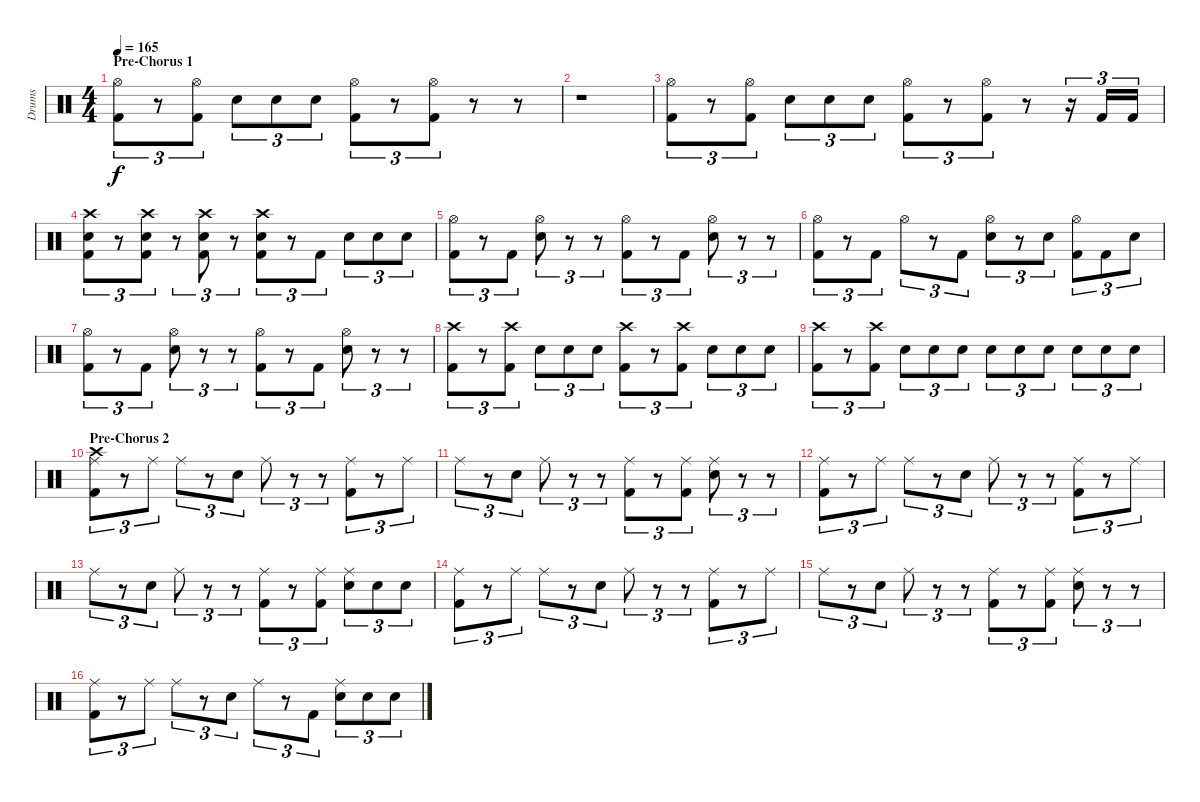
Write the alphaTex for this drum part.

\track ("Drums" "Drums") {instrument percussion}
\staff {score}
\articulation defaults
\ts (4 4)
\section ("" "Pre-Chorus 1")
\tempo 165
\clef neutral
\ks c
("Hi-Hat (open)" "Kick (hit) 2").8{tu (3 2) dy f} r.8{tu (3 2)} ("Hi-Hat (open)" "Kick (hit) 2").8{tu (3 2)} "Snare (hit) 2".8{tu (3 2)} "Snare (hit) 2".8{tu (3 2)} "Snare (hit) 2".8{tu (3 2)} ("Hi-Hat (open)" "Kick (hit) 2").8{tu (3 2)} r.8{tu (3 2)} ("Hi-Hat (open)" "Kick (hit) 2").8{tu (3 2)} r.8 r.8 |
r.1 |
("Hi-Hat (open)" "Kick (hit) 2").8{tu (3 2)} r.8{tu (3 2)} ("Hi-Hat (open)" "Kick (hit) 2").8{tu (3 2)} "Snare (hit) 2".8{tu (3 2)} "Snare (hit) 2".8{tu (3 2)} "Snare (hit) 2".8{tu (3 2)} ("Hi-Hat (open)" "Kick (hit) 2").8{tu (3 2)} r.8{tu (3 2)} ("Hi-Hat (open)" "Kick (hit) 2").8{tu (3 2)} r.8 r.16{tu (3 2)} "Kick (hit) 2".16{tu (3 2)} "Kick (hit) 2".16{tu (3 2)} |
("Crash high (hit)" "Snare (hit) 2" "Kick (hit) 2").8{tu (3 2)} r.8{tu (3 2)} ("Crash high (hit)" "Snare (hit) 2" "Kick (hit) 2").8{tu (3 2)} r.8{tu (3 2)} ("Crash high (hit)" "Snare (hit) 2" "Kick (hit) 2").8{tu (3 2)} r.8{tu (3 2)} ("Crash high (hit)" "Snare (hit) 2" "Kick (hit) 2").8{tu (3 2)} r.8{tu (3 2)} "Kick (hit) 2".8{tu (3 2)} "Snare (hit) 2".8{tu (3 2)} "Snare (hit) 2".8{tu (3 2)} "Snare (hit) 2".8{tu (3 2)} |
("Hi-Hat (open)" "Kick (hit) 2").8{tu (3 2)} r.8{tu (3 2)} "Kick (hit) 2".8{tu (3 2)} ("Hi-Hat (open)" "Snare (hit) 2").8{tu (3 2)} r.8{tu (3 2)} r.8{tu (3 2)} ("Hi-Hat (open)" "Kick (hit) 2").8{tu (3 2)} r.8{tu (3 2)} "Kick (hit) 2".8{tu (3 2)} ("Hi-Hat (open)" "Snare (hit) 2").8{tu (3 2)} r.8{tu (3 2)} r.8{tu (3 2)} |
("Hi-Hat (open)" "Kick (hit) 2").8{tu (3 2)} r.8{tu (3 2)} "Kick (hit) 2".8{tu (3 2)} "Hi-Hat (open)".8{tu (3 2)} r.8{tu (3 2)} "Kick (hit) 2".8{tu (3 2)} ("Hi-Hat (open)" "Snare (hit) 2").8{tu (3 2)} r.8{tu (3 2)} "Snare (hit) 2".8{tu (3 2)} ("Hi-Hat (open)" "Kick (hit) 2").8{tu (3 2)} "Kick (hit) 2".8{tu (3 2)} "Snare (hit) 2".8{tu (3 2)} |
("Hi-Hat (open)" "Kick (hit) 2").8{tu (3 2)} r.8{tu (3 2)} "Kick (hit) 2".8{tu (3 2)} ("Hi-Hat (open)" "Snare (hit) 2").8{tu (3 2)} r.8{tu (3 2)} r.8{tu (3 2)} ("Hi-Hat (open)" "Kick (hit) 2").8{tu (3 2)} r.8{tu (3 2)} "Kick (hit) 2".8{tu (3 2)} ("Hi-Hat (open)" "Snare (hit) 2").8{tu (3 2)} r.8{tu (3 2)} r.8{tu (3 2)} |
("Crash high (hit)" "Kick (hit) 2").8{tu (3 2)} r.8{tu (3 2)} ("Crash high (hit)" "Kick (hit) 2").8{tu (3 2)} "Snare (hit) 2".8{tu (3 2)} "Snare (hit) 2".8{tu (3 2)} "Snare (hit) 2".8{tu (3 2)} ("Crash high (hit)" "Kick (hit) 2").8{tu (3 2)} r.8{tu (3 2)} ("Crash high (hit)" "Kick (hit) 2").8{tu (3 2)} "Snare (hit) 2".8{tu (3 2)} "Snare (hit) 2".8{tu (3 2)} "Snare (hit) 2".8{tu (3 2)} |
("Crash high (hit)" "Kick (hit) 2").8{tu (3 2)} r.8{tu (3 2)} ("Crash high (hit)" "Kick (hit) 2").8{tu (3 2)} "Snare (hit) 2".8{tu (3 2)} "Snare (hit) 2".8{tu (3 2)} "Snare (hit) 2".8{tu (3 2)} "Snare (hit) 2".8{tu (3 2)} "Snare (hit) 2".8{tu (3 2)} "Snare (hit) 2".8{tu (3 2)} "Snare (hit) 2".8{tu (3 2)} "Snare (hit) 2".8{tu (3 2)} "Snare (hit) 2".8{tu (3 2)} |
\section ("" "Pre-Chorus 2")
("Ride (middle)" "Crash high (hit)" "Kick (hit) 2").8{tu (3 2)} r.8{tu (3 2)} "Ride (middle)".8{tu (3 2)} "Ride (middle)".8{tu (3 2)} r.8{tu (3 2)} "Snare (hit) 2".8{tu (3 2)} "Ride (middle)".8{tu (3 2)} r.8{tu (3 2)} r.8{tu (3 2)} ("Ride (middle)" "Kick (hit) 2").8{tu (3 2)} r.8{tu (3 2)} "Ride (middle)".8{tu (3 2)} |
"Ride (middle)".8{tu (3 2)} r.8{tu (3 2)} "Snare (hit) 2".8{tu (3 2)} "Ride (middle)".8{tu (3 2)} r.8{tu (3 2)} r.8{tu (3 2)} ("Ride (middle)" "Kick (hit) 2").8{tu (3 2)} r.8{tu (3 2)} ("Ride (middle)" "Kick (hit) 2").8{tu (3 2)} ("Ride (middle)" "Snare (hit) 2").8{tu (3 2)} r.8{tu (3 2)} r.8{tu (3 2)} |
("Ride (middle)" "Kick (hit) 2").8{tu (3 2)} r.8{tu (3 2)} "Ride (middle)".8{tu (3 2)} "Ride (middle)".8{tu (3 2)} r.8{tu (3 2)} "Snare (hit) 2".8{tu (3 2)} "Ride (middle)".8{tu (3 2)} r.8{tu (3 2)} r.8{tu (3 2)} ("Ride (middle)" "Kick (hit) 2").8{tu (3 2)} r.8{tu (3 2)} "Ride (middle)".8{tu (3 2)} |
"Ride (middle)".8{tu (3 2)} r.8{tu (3 2)} "Snare (hit) 2".8{tu (3 2)} "Ride (middle)".8{tu (3 2)} r.8{tu (3 2)} r.8{tu (3 2)} ("Ride (middle)" "Kick (hit) 2").8{tu (3 2)} r.8{tu (3 2)} ("Ride (middle)" "Kick (hit) 2").8{tu (3 2)} ("Ride (middle)" "Snare (hit) 2").8{tu (3 2)} "Snare (hit) 2".8{tu (3 2)} "Snare (hit) 2".8{tu (3 2)} |
("Ride (middle)" "Kick (hit) 2").8{tu (3 2)} r.8{tu (3 2)} "Ride (middle)".8{tu (3 2)} "Ride (middle)".8{tu (3 2)} r.8{tu (3 2)} "Snare (hit) 2".8{tu (3 2)} "Ride (middle)".8{tu (3 2)} r.8{tu (3 2)} r.8{tu (3 2)} ("Ride (middle)" "Kick (hit) 2").8{tu (3 2)} r.8{tu (3 2)} "Ride (middle)".8{tu (3 2)} |
"Ride (middle)".8{tu (3 2)} r.8{tu (3 2)} "Snare (hit) 2".8{tu (3 2)} "Ride (middle)".8{tu (3 2)} r.8{tu (3 2)} r.8{tu (3 2)} ("Ride (middle)" "Kick (hit) 2").8{tu (3 2)} r.8{tu (3 2)} ("Ride (middle)" "Kick (hit) 2").8{tu (3 2)} ("Ride (middle)" "Snare (hit) 2").8{tu (3 2)} r.8{tu (3 2)} r.8{tu (3 2)} |
("Ride (middle)" "Kick (hit) 2").8{tu (3 2)} r.8{tu (3 2)} "Ride (middle)".8{tu (3 2)} "Ride (middle)".8{tu (3 2)} r.8{tu (3 2)} "Snare (hit) 2".8{tu (3 2)} "Ride (middle)".8{tu (3 2)} r.8{tu (3 2)} "Kick (hit) 2".8{tu (3 2)} ("Ride (middle)" "Snare (hit) 2").8{tu (3 2)} "Snare (hit) 2".8{tu (3 2)} "Snare (hit) 2".8{tu (3 2)}
